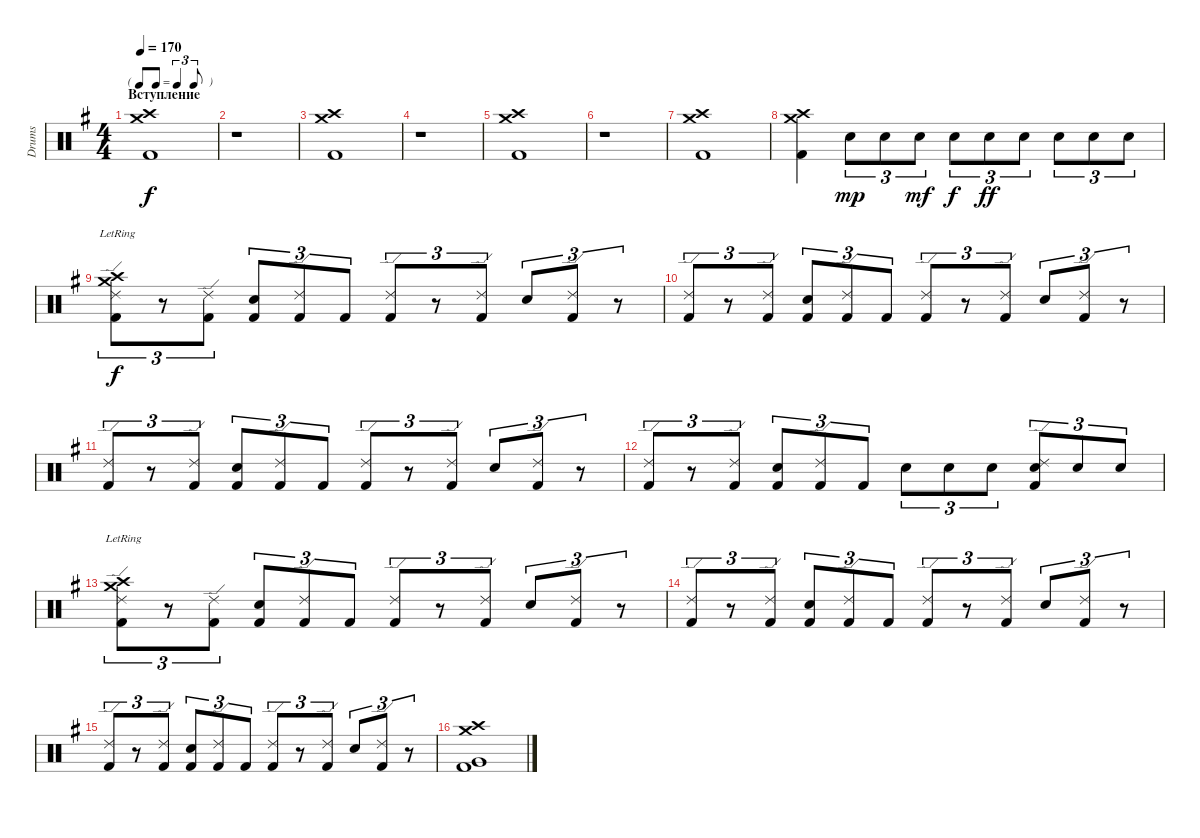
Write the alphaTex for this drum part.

\track ("Drums" "Drums") {instrument percussion}
\staff {score}
\articulation defaults
\ts (4 4)
\tf triplet8th
\section ("" "Вступление")
\tempo 170
\clef neutral
\ks eminor
("Crash high (hit)" "Crash medium (hit)" "Kick (hit) 2").1{dy f} |
r.1 |
("Crash high (hit)" "Crash medium (hit)" "Kick (hit) 2").1 |
r.1 |
("Crash high (hit)" "Crash medium (hit)" "Kick (hit) 2").1 |
r.1 |
("Crash high (hit)" "Crash medium (hit)" "Kick (hit) 2").1 |
("Crash high (hit)" "Crash medium (hit)" "Kick (hit) 2").4 "Electric Snare (hit)".8{tu (3 2) dy mp} "Electric Snare (hit)".8{tu (3 2)} "Electric Snare (hit)".8{tu (3 2) dy mf} "Electric Snare (hit)".8{tu (3 2) dy f} "Electric Snare (hit)".8{tu (3 2) dy ff} "Electric Snare (hit)".8{tu (3 2)} "Electric Snare (hit)".8{tu (3 2)} "Electric Snare (hit)".8{tu (3 2)} "Electric Snare (hit)".8{tu (3 2)} |
("Crash high (hit)"{lr} "Crash medium (hit)"{lr} "Ride (edge) 2" "Kick (hit) 2").8{tu (3 2) dy f} r.8{tu (3 2)} ("Ride (edge) 2" "Kick (hit) 2").8{tu (3 2)} ("Electric Snare (hit)" "Kick (hit) 2").8{tu (3 2)} ("Ride (edge) 2" "Kick (hit) 2").8{tu (3 2)} "Kick (hit) 2".8{tu (3 2)} ("Ride (edge) 2" "Kick (hit) 2").8{tu (3 2)} r.8{tu (3 2)} ("Ride (edge) 2" "Kick (hit) 2").8{tu (3 2)} "Electric Snare (hit)".8{tu (3 2)} ("Ride (edge) 2" "Kick (hit) 2").8{tu (3 2)} r.8{tu (3 2)} |
("Ride (edge) 2" "Kick (hit) 2").8{tu (3 2)} r.8{tu (3 2)} ("Ride (edge) 2" "Kick (hit) 2").8{tu (3 2)} ("Electric Snare (hit)" "Kick (hit) 2").8{tu (3 2)} ("Ride (edge) 2" "Kick (hit) 2").8{tu (3 2)} "Kick (hit) 2".8{tu (3 2)} ("Ride (edge) 2" "Kick (hit) 2").8{tu (3 2)} r.8{tu (3 2)} ("Ride (edge) 2" "Kick (hit) 2").8{tu (3 2)} "Electric Snare (hit)".8{tu (3 2)} ("Ride (edge) 2" "Kick (hit) 2").8{tu (3 2)} r.8{tu (3 2)} |
("Ride (edge) 2" "Kick (hit) 2").8{tu (3 2)} r.8{tu (3 2)} ("Ride (edge) 2" "Kick (hit) 2").8{tu (3 2)} ("Electric Snare (hit)" "Kick (hit) 2").8{tu (3 2)} ("Ride (edge) 2" "Kick (hit) 2").8{tu (3 2)} "Kick (hit) 2".8{tu (3 2)} ("Ride (edge) 2" "Kick (hit) 2").8{tu (3 2)} r.8{tu (3 2)} ("Ride (edge) 2" "Kick (hit) 2").8{tu (3 2)} "Electric Snare (hit)".8{tu (3 2)} ("Ride (edge) 2" "Kick (hit) 2").8{tu (3 2)} r.8{tu (3 2)} |
("Ride (edge) 2" "Kick (hit) 2").8{tu (3 2)} r.8{tu (3 2)} ("Ride (edge) 2" "Kick (hit) 2").8{tu (3 2)} ("Electric Snare (hit)" "Kick (hit) 2").8{tu (3 2)} ("Ride (edge) 2" "Kick (hit) 2").8{tu (3 2)} "Kick (hit) 2".8{tu (3 2)} "Electric Snare (hit)".8{tu (3 2)} "Electric Snare (hit)".8{tu (3 2)} "Electric Snare (hit)".8{tu (3 2)} ("Electric Snare (hit)" "Ride (edge) 2" "Kick (hit) 2").8{tu (3 2)} "Electric Snare (hit)".8{tu (3 2)} "Electric Snare (hit)".8{tu (3 2)} |
("Crash high (hit)"{lr} "Crash medium (hit)"{lr} "Ride (edge) 2" "Kick (hit) 2").8{tu (3 2)} r.8{tu (3 2)} ("Ride (edge) 2" "Kick (hit) 2").8{tu (3 2)} ("Electric Snare (hit)" "Kick (hit) 2").8{tu (3 2)} ("Ride (edge) 2" "Kick (hit) 2").8{tu (3 2)} "Kick (hit) 2".8{tu (3 2)} ("Ride (edge) 2" "Kick (hit) 2").8{tu (3 2)} r.8{tu (3 2)} ("Ride (edge) 2" "Kick (hit) 2").8{tu (3 2)} "Electric Snare (hit)".8{tu (3 2)} ("Ride (edge) 2" "Kick (hit) 2").8{tu (3 2)} r.8{tu (3 2)} |
("Ride (edge) 2" "Kick (hit) 2").8{tu (3 2)} r.8{tu (3 2)} ("Ride (edge) 2" "Kick (hit) 2").8{tu (3 2)} ("Electric Snare (hit)" "Kick (hit) 2").8{tu (3 2)} ("Ride (edge) 2" "Kick (hit) 2").8{tu (3 2)} "Kick (hit) 2".8{tu (3 2)} ("Ride (edge) 2" "Kick (hit) 2").8{tu (3 2)} r.8{tu (3 2)} ("Ride (edge) 2" "Kick (hit) 2").8{tu (3 2)} "Electric Snare (hit)".8{tu (3 2)} ("Ride (edge) 2" "Kick (hit) 2").8{tu (3 2)} r.8{tu (3 2)} |
("Ride (edge) 2" "Kick (hit) 2").8{tu (3 2)} r.8{tu (3 2)} ("Ride (edge) 2" "Kick (hit) 2").8{tu (3 2)} ("Electric Snare (hit)" "Kick (hit) 2").8{tu (3 2)} ("Ride (edge) 2" "Kick (hit) 2").8{tu (3 2)} "Kick (hit) 2".8{tu (3 2)} ("Ride (edge) 2" "Kick (hit) 2").8{tu (3 2)} r.8{tu (3 2)} ("Ride (edge) 2" "Kick (hit) 2").8{tu (3 2)} "Electric Snare (hit)".8{tu (3 2)} ("Ride (edge) 2" "Kick (hit) 2").8{tu (3 2)} r.8{tu (3 2)} |
("Kick (hit) 2" "Very Low Tom (hit)" "Crash high (hit)" "Crash medium (hit)").1
